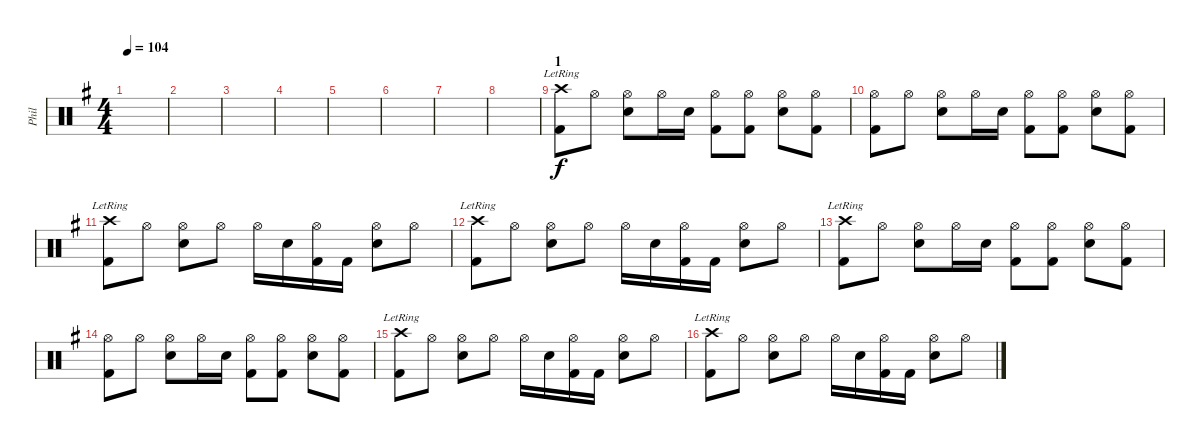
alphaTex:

\track ("Phil" "Phil") {instrument percussion}
\staff {score}
\articulation defaults
\ts (4 4)
\tempo 104
\clef neutral
\ks g
|
|
|
|
|
|
|
|
\section ("" "1")
("Kick (hit) 2" "Crash high (hit)"{lr}).8 "Hi-Hat (open)".8 ("Snare (hit) 2" "Hi-Hat (open)").8 "Hi-Hat (open)".16 "Snare (hit) 2".16 ("Kick (hit) 2" "Hi-Hat (open)").8 ("Kick (hit) 2" "Hi-Hat (open)").8 ("Snare (hit) 2" "Hi-Hat (open)").8 ("Kick (hit) 2" "Hi-Hat (open)").8 |
("Kick (hit) 2" "Hi-Hat (open)").8 "Hi-Hat (open)".8 ("Snare (hit) 2" "Hi-Hat (open)").8 "Hi-Hat (open)".16 "Snare (hit) 2".16 ("Kick (hit) 2" "Hi-Hat (open)").8 ("Kick (hit) 2" "Hi-Hat (open)").8 ("Snare (hit) 2" "Hi-Hat (open)").8 ("Kick (hit) 2" "Hi-Hat (open)").8 |
("Kick (hit) 2" "Crash high (hit)"{lr}).8 "Hi-Hat (open)".8 ("Snare (hit) 2" "Hi-Hat (open)").8 "Hi-Hat (open)".8 "Hi-Hat (open)".16 "Snare (hit) 2".16 ("Kick (hit) 2" "Hi-Hat (open)").16 "Kick (hit) 2".16 ("Snare (hit) 2" "Hi-Hat (open)").8 "Hi-Hat (open)".8 |
("Kick (hit) 2" "Crash high (hit)"{lr}).8 "Hi-Hat (open)".8 ("Snare (hit) 2" "Hi-Hat (open)").8 "Hi-Hat (open)".8 "Hi-Hat (open)".16 "Snare (hit) 2".16 ("Kick (hit) 2" "Hi-Hat (open)").16 "Kick (hit) 2".16 ("Snare (hit) 2" "Hi-Hat (open)").8 "Hi-Hat (open)".8 |
("Kick (hit) 2" "Crash high (hit)"{lr}).8 "Hi-Hat (open)".8 ("Snare (hit) 2" "Hi-Hat (open)").8 "Hi-Hat (open)".16 "Snare (hit) 2".16 ("Kick (hit) 2" "Hi-Hat (open)").8 ("Kick (hit) 2" "Hi-Hat (open)").8 ("Snare (hit) 2" "Hi-Hat (open)").8 ("Kick (hit) 2" "Hi-Hat (open)").8 |
("Kick (hit) 2" "Hi-Hat (open)").8 "Hi-Hat (open)".8 ("Snare (hit) 2" "Hi-Hat (open)").8 "Hi-Hat (open)".16 "Snare (hit) 2".16 ("Kick (hit) 2" "Hi-Hat (open)").8 ("Kick (hit) 2" "Hi-Hat (open)").8 ("Snare (hit) 2" "Hi-Hat (open)").8 ("Kick (hit) 2" "Hi-Hat (open)").8 |
("Kick (hit) 2" "Crash high (hit)"{lr}).8 "Hi-Hat (open)".8 ("Snare (hit) 2" "Hi-Hat (open)").8 "Hi-Hat (open)".8 "Hi-Hat (open)".16 "Snare (hit) 2".16 ("Kick (hit) 2" "Hi-Hat (open)").16 "Kick (hit) 2".16 ("Snare (hit) 2" "Hi-Hat (open)").8 "Hi-Hat (open)".8 |
("Kick (hit) 2" "Crash high (hit)"{lr}).8 "Hi-Hat (open)".8 ("Snare (hit) 2" "Hi-Hat (open)").8 "Hi-Hat (open)".8 "Hi-Hat (open)".16 "Snare (hit) 2".16 ("Kick (hit) 2" "Hi-Hat (open)").16 "Kick (hit) 2".16 ("Snare (hit) 2" "Hi-Hat (open)").8 "Hi-Hat (open)".8
